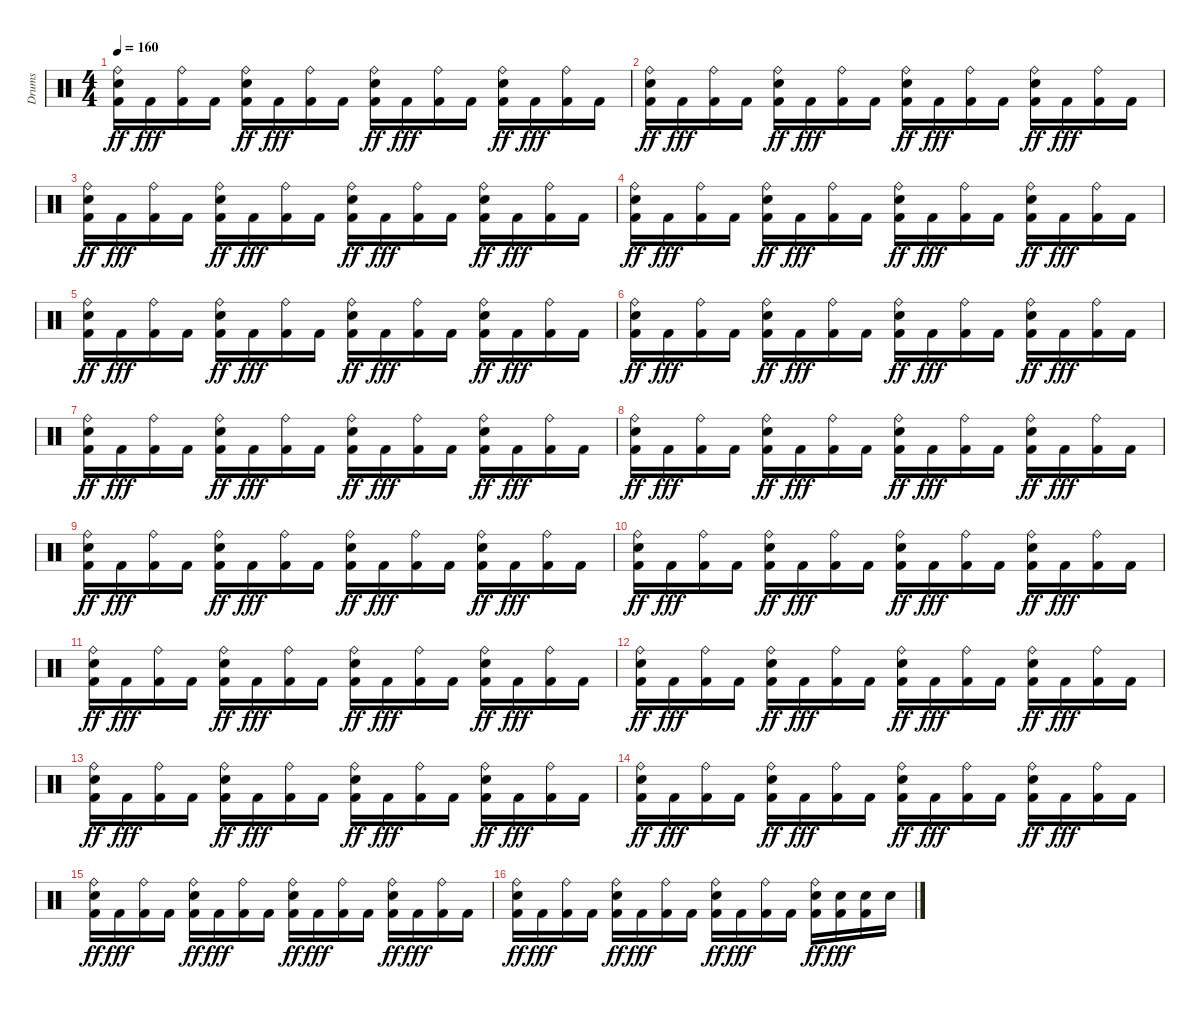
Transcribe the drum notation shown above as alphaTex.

\track ("Drums" "Drums") {instrument percussion}
\staff {score}
\articulation defaults
\ts (4 4)
\tempo 160
\clef neutral
\ks c
("Ride (bell)" "Kick (hit) 2" "Electric Snare (hit)").16{dy ff} "Kick (hit) 2".16{dy fff} ("Ride (bell)" "Kick (hit) 2").16 "Kick (hit) 2".16 ("Ride (bell)" "Kick (hit) 2" "Electric Snare (hit)").16{dy ff} "Kick (hit) 2".16{dy fff} ("Ride (bell)" "Kick (hit) 2").16 "Kick (hit) 2".16 ("Ride (bell)" "Kick (hit) 2" "Electric Snare (hit)").16{dy ff} "Kick (hit) 2".16{dy fff} ("Ride (bell)" "Kick (hit) 2").16 "Kick (hit) 2".16 ("Ride (bell)" "Kick (hit) 2" "Electric Snare (hit)").16{dy ff} "Kick (hit) 2".16{dy fff} ("Ride (bell)" "Kick (hit) 2").16 "Kick (hit) 2".16 |
("Ride (bell)" "Kick (hit) 2" "Electric Snare (hit)").16{dy ff} "Kick (hit) 2".16{dy fff} ("Ride (bell)" "Kick (hit) 2").16 "Kick (hit) 2".16 ("Ride (bell)" "Kick (hit) 2" "Electric Snare (hit)").16{dy ff} "Kick (hit) 2".16{dy fff} ("Ride (bell)" "Kick (hit) 2").16 "Kick (hit) 2".16 ("Ride (bell)" "Kick (hit) 2" "Electric Snare (hit)").16{dy ff} "Kick (hit) 2".16{dy fff} ("Ride (bell)" "Kick (hit) 2").16 "Kick (hit) 2".16 ("Ride (bell)" "Kick (hit) 2" "Electric Snare (hit)").16{dy ff} "Kick (hit) 2".16{dy fff} ("Ride (bell)" "Kick (hit) 2").16 "Kick (hit) 2".16 |
("Ride (bell)" "Kick (hit) 2" "Electric Snare (hit)").16{dy ff} "Kick (hit) 2".16{dy fff} ("Ride (bell)" "Kick (hit) 2").16 "Kick (hit) 2".16 ("Ride (bell)" "Kick (hit) 2" "Electric Snare (hit)").16{dy ff} "Kick (hit) 2".16{dy fff} ("Ride (bell)" "Kick (hit) 2").16 "Kick (hit) 2".16 ("Ride (bell)" "Kick (hit) 2" "Electric Snare (hit)").16{dy ff} "Kick (hit) 2".16{dy fff} ("Ride (bell)" "Kick (hit) 2").16 "Kick (hit) 2".16 ("Ride (bell)" "Kick (hit) 2" "Electric Snare (hit)").16{dy ff} "Kick (hit) 2".16{dy fff} ("Ride (bell)" "Kick (hit) 2").16 "Kick (hit) 2".16 |
("Ride (bell)" "Kick (hit) 2" "Electric Snare (hit)").16{dy ff} "Kick (hit) 2".16{dy fff} ("Ride (bell)" "Kick (hit) 2").16 "Kick (hit) 2".16 ("Ride (bell)" "Kick (hit) 2" "Electric Snare (hit)").16{dy ff} "Kick (hit) 2".16{dy fff} ("Ride (bell)" "Kick (hit) 2").16 "Kick (hit) 2".16 ("Ride (bell)" "Kick (hit) 2" "Electric Snare (hit)").16{dy ff} "Kick (hit) 2".16{dy fff} ("Ride (bell)" "Kick (hit) 2").16 "Kick (hit) 2".16 ("Ride (bell)" "Kick (hit) 2" "Electric Snare (hit)").16{dy ff} "Kick (hit) 2".16{dy fff} ("Ride (bell)" "Kick (hit) 2").16 "Kick (hit) 2".16 |
("Ride (bell)" "Kick (hit) 2" "Electric Snare (hit)").16{dy ff} "Kick (hit) 2".16{dy fff} ("Ride (bell)" "Kick (hit) 2").16 "Kick (hit) 2".16 ("Ride (bell)" "Kick (hit) 2" "Electric Snare (hit)").16{dy ff} "Kick (hit) 2".16{dy fff} ("Ride (bell)" "Kick (hit) 2").16 "Kick (hit) 2".16 ("Ride (bell)" "Kick (hit) 2" "Electric Snare (hit)").16{dy ff} "Kick (hit) 2".16{dy fff} ("Ride (bell)" "Kick (hit) 2").16 "Kick (hit) 2".16 ("Ride (bell)" "Kick (hit) 2" "Electric Snare (hit)").16{dy ff} "Kick (hit) 2".16{dy fff} ("Ride (bell)" "Kick (hit) 2").16 "Kick (hit) 2".16 |
("Ride (bell)" "Kick (hit) 2" "Electric Snare (hit)").16{dy ff} "Kick (hit) 2".16{dy fff} ("Ride (bell)" "Kick (hit) 2").16 "Kick (hit) 2".16 ("Ride (bell)" "Kick (hit) 2" "Electric Snare (hit)").16{dy ff} "Kick (hit) 2".16{dy fff} ("Ride (bell)" "Kick (hit) 2").16 "Kick (hit) 2".16 ("Ride (bell)" "Kick (hit) 2" "Electric Snare (hit)").16{dy ff} "Kick (hit) 2".16{dy fff} ("Ride (bell)" "Kick (hit) 2").16 "Kick (hit) 2".16 ("Ride (bell)" "Kick (hit) 2" "Electric Snare (hit)").16{dy ff} "Kick (hit) 2".16{dy fff} ("Ride (bell)" "Kick (hit) 2").16 "Kick (hit) 2".16 |
("Ride (bell)" "Kick (hit) 2" "Electric Snare (hit)").16{dy ff} "Kick (hit) 2".16{dy fff} ("Ride (bell)" "Kick (hit) 2").16 "Kick (hit) 2".16 ("Ride (bell)" "Kick (hit) 2" "Electric Snare (hit)").16{dy ff} "Kick (hit) 2".16{dy fff} ("Ride (bell)" "Kick (hit) 2").16 "Kick (hit) 2".16 ("Ride (bell)" "Kick (hit) 2" "Electric Snare (hit)").16{dy ff} "Kick (hit) 2".16{dy fff} ("Ride (bell)" "Kick (hit) 2").16 "Kick (hit) 2".16 ("Ride (bell)" "Kick (hit) 2" "Electric Snare (hit)").16{dy ff} "Kick (hit) 2".16{dy fff} ("Ride (bell)" "Kick (hit) 2").16 "Kick (hit) 2".16 |
("Ride (bell)" "Kick (hit) 2" "Electric Snare (hit)").16{dy ff} "Kick (hit) 2".16{dy fff} ("Ride (bell)" "Kick (hit) 2").16 "Kick (hit) 2".16 ("Ride (bell)" "Kick (hit) 2" "Electric Snare (hit)").16{dy ff} "Kick (hit) 2".16{dy fff} ("Ride (bell)" "Kick (hit) 2").16 "Kick (hit) 2".16 ("Ride (bell)" "Kick (hit) 2" "Electric Snare (hit)").16{dy ff} "Kick (hit) 2".16{dy fff} ("Ride (bell)" "Kick (hit) 2").16 "Kick (hit) 2".16 ("Ride (bell)" "Kick (hit) 2" "Electric Snare (hit)").16{dy ff} "Kick (hit) 2".16{dy fff} ("Ride (bell)" "Kick (hit) 2").16 "Kick (hit) 2".16 |
("Ride (bell)" "Kick (hit) 2" "Electric Snare (hit)").16{dy ff} "Kick (hit) 2".16{dy fff} ("Ride (bell)" "Kick (hit) 2").16 "Kick (hit) 2".16 ("Ride (bell)" "Kick (hit) 2" "Electric Snare (hit)").16{dy ff} "Kick (hit) 2".16{dy fff} ("Ride (bell)" "Kick (hit) 2").16 "Kick (hit) 2".16 ("Ride (bell)" "Kick (hit) 2" "Electric Snare (hit)").16{dy ff} "Kick (hit) 2".16{dy fff} ("Ride (bell)" "Kick (hit) 2").16 "Kick (hit) 2".16 ("Ride (bell)" "Kick (hit) 2" "Electric Snare (hit)").16{dy ff} "Kick (hit) 2".16{dy fff} ("Ride (bell)" "Kick (hit) 2").16 "Kick (hit) 2".16 |
("Ride (bell)" "Kick (hit) 2" "Electric Snare (hit)").16{dy ff} "Kick (hit) 2".16{dy fff} ("Ride (bell)" "Kick (hit) 2").16 "Kick (hit) 2".16 ("Ride (bell)" "Kick (hit) 2" "Electric Snare (hit)").16{dy ff} "Kick (hit) 2".16{dy fff} ("Ride (bell)" "Kick (hit) 2").16 "Kick (hit) 2".16 ("Ride (bell)" "Kick (hit) 2" "Electric Snare (hit)").16{dy ff} "Kick (hit) 2".16{dy fff} ("Ride (bell)" "Kick (hit) 2").16 "Kick (hit) 2".16 ("Ride (bell)" "Kick (hit) 2" "Electric Snare (hit)").16{dy ff} "Kick (hit) 2".16{dy fff} ("Ride (bell)" "Kick (hit) 2").16 "Kick (hit) 2".16 |
("Ride (bell)" "Kick (hit) 2" "Electric Snare (hit)").16{dy ff} "Kick (hit) 2".16{dy fff} ("Ride (bell)" "Kick (hit) 2").16 "Kick (hit) 2".16 ("Ride (bell)" "Kick (hit) 2" "Electric Snare (hit)").16{dy ff} "Kick (hit) 2".16{dy fff} ("Ride (bell)" "Kick (hit) 2").16 "Kick (hit) 2".16 ("Ride (bell)" "Kick (hit) 2" "Electric Snare (hit)").16{dy ff} "Kick (hit) 2".16{dy fff} ("Ride (bell)" "Kick (hit) 2").16 "Kick (hit) 2".16 ("Ride (bell)" "Kick (hit) 2" "Electric Snare (hit)").16{dy ff} "Kick (hit) 2".16{dy fff} ("Ride (bell)" "Kick (hit) 2").16 "Kick (hit) 2".16 |
("Ride (bell)" "Kick (hit) 2" "Electric Snare (hit)").16{dy ff} "Kick (hit) 2".16{dy fff} ("Ride (bell)" "Kick (hit) 2").16 "Kick (hit) 2".16 ("Ride (bell)" "Kick (hit) 2" "Electric Snare (hit)").16{dy ff} "Kick (hit) 2".16{dy fff} ("Ride (bell)" "Kick (hit) 2").16 "Kick (hit) 2".16 ("Ride (bell)" "Kick (hit) 2" "Electric Snare (hit)").16{dy ff} "Kick (hit) 2".16{dy fff} ("Ride (bell)" "Kick (hit) 2").16 "Kick (hit) 2".16 ("Ride (bell)" "Kick (hit) 2" "Electric Snare (hit)").16{dy ff} "Kick (hit) 2".16{dy fff} ("Ride (bell)" "Kick (hit) 2").16 "Kick (hit) 2".16 |
("Ride (bell)" "Kick (hit) 2" "Electric Snare (hit)").16{dy ff} "Kick (hit) 2".16{dy fff} ("Ride (bell)" "Kick (hit) 2").16 "Kick (hit) 2".16 ("Ride (bell)" "Kick (hit) 2" "Electric Snare (hit)").16{dy ff} "Kick (hit) 2".16{dy fff} ("Ride (bell)" "Kick (hit) 2").16 "Kick (hit) 2".16 ("Ride (bell)" "Kick (hit) 2" "Electric Snare (hit)").16{dy ff} "Kick (hit) 2".16{dy fff} ("Ride (bell)" "Kick (hit) 2").16 "Kick (hit) 2".16 ("Ride (bell)" "Kick (hit) 2" "Electric Snare (hit)").16{dy ff} "Kick (hit) 2".16{dy fff} ("Ride (bell)" "Kick (hit) 2").16 "Kick (hit) 2".16 |
("Ride (bell)" "Kick (hit) 2" "Electric Snare (hit)").16{dy ff} "Kick (hit) 2".16{dy fff} ("Ride (bell)" "Kick (hit) 2").16 "Kick (hit) 2".16 ("Ride (bell)" "Kick (hit) 2" "Electric Snare (hit)").16{dy ff} "Kick (hit) 2".16{dy fff} ("Ride (bell)" "Kick (hit) 2").16 "Kick (hit) 2".16 ("Ride (bell)" "Kick (hit) 2" "Electric Snare (hit)").16{dy ff} "Kick (hit) 2".16{dy fff} ("Ride (bell)" "Kick (hit) 2").16 "Kick (hit) 2".16 ("Ride (bell)" "Kick (hit) 2" "Electric Snare (hit)").16{dy ff} "Kick (hit) 2".16{dy fff} ("Ride (bell)" "Kick (hit) 2").16 "Kick (hit) 2".16 |
("Ride (bell)" "Kick (hit) 2" "Electric Snare (hit)").16{dy ff} "Kick (hit) 2".16{dy fff} ("Ride (bell)" "Kick (hit) 2").16 "Kick (hit) 2".16 ("Ride (bell)" "Kick (hit) 2" "Electric Snare (hit)").16{dy ff} "Kick (hit) 2".16{dy fff} ("Ride (bell)" "Kick (hit) 2").16 "Kick (hit) 2".16 ("Ride (bell)" "Kick (hit) 2" "Electric Snare (hit)").16{dy ff} "Kick (hit) 2".16{dy fff} ("Ride (bell)" "Kick (hit) 2").16 "Kick (hit) 2".16 ("Ride (bell)" "Kick (hit) 2" "Electric Snare (hit)").16{dy ff} "Kick (hit) 2".16{dy fff} ("Ride (bell)" "Kick (hit) 2").16 "Kick (hit) 2".16 |
("Ride (bell)" "Kick (hit) 2" "Electric Snare (hit)").16{dy ff} "Kick (hit) 2".16{dy fff} ("Ride (bell)" "Kick (hit) 2").16 "Kick (hit) 2".16 ("Ride (bell)" "Kick (hit) 2" "Electric Snare (hit)").16{dy ff} "Kick (hit) 2".16{dy fff} ("Ride (bell)" "Kick (hit) 2").16 "Kick (hit) 2".16 ("Ride (bell)" "Kick (hit) 2" "Electric Snare (hit)").16{dy ff} "Kick (hit) 2".16{dy fff} ("Ride (bell)" "Kick (hit) 2").16 "Kick (hit) 2".16 ("Ride (bell)" "Kick (hit) 2" "Electric Snare (hit)").16{dy ff} ("Kick (hit) 2" "Electric Snare (hit)").16{dy fff} ("Kick (hit) 2" "Electric Snare (hit)").16 "Electric Snare (hit)".16
